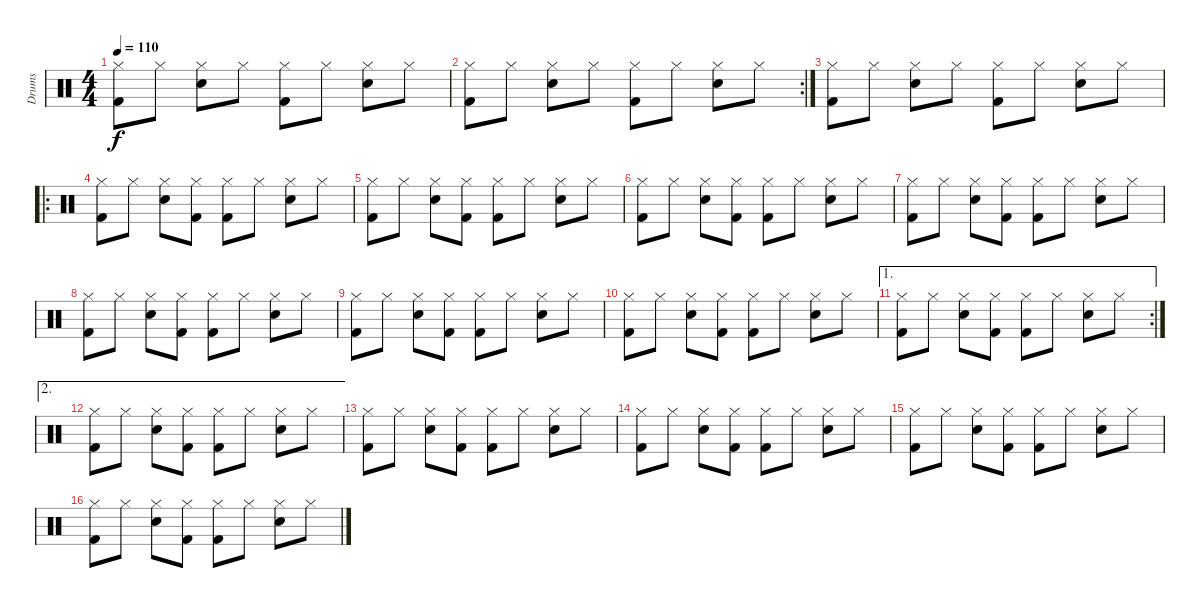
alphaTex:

\track ("Drums" "Drums") {instrument percussion}
\staff {score}
\articulation defaults
\ts (4 4)
\tempo 110
\clef neutral
\ks c
("Hi-Hat (closed)" "Kick (hit) 2").8{dy f} "Hi-Hat (closed)".8 ("Hi-Hat (closed)" "Snare (hit) 2").8 "Hi-Hat (closed)".8 ("Hi-Hat (closed)" "Kick (hit) 2").8 "Hi-Hat (closed)".8 ("Hi-Hat (closed)" "Snare (hit) 2").8 "Hi-Hat (closed)".8 |
\rc 2
("Hi-Hat (closed)" "Kick (hit) 2").8 "Hi-Hat (closed)".8 ("Hi-Hat (closed)" "Snare (hit) 2").8 "Hi-Hat (closed)".8 ("Hi-Hat (closed)" "Kick (hit) 2").8 "Hi-Hat (closed)".8 ("Hi-Hat (closed)" "Snare (hit) 2").8 "Hi-Hat (closed)".8 |
("Hi-Hat (closed)" "Kick (hit) 2").8 "Hi-Hat (closed)".8 ("Hi-Hat (closed)" "Snare (hit) 2").8 "Hi-Hat (closed)".8 ("Hi-Hat (closed)" "Kick (hit) 2").8 "Hi-Hat (closed)".8 ("Hi-Hat (closed)" "Snare (hit) 2").8 "Hi-Hat (closed)".8 |
\ro
("Hi-Hat (closed)" "Kick (hit) 2").8 "Hi-Hat (closed)".8 ("Hi-Hat (closed)" "Snare (hit) 2").8 ("Hi-Hat (closed)" "Kick (hit) 2").8 ("Hi-Hat (closed)" "Kick (hit) 2").8 "Hi-Hat (closed)".8 ("Hi-Hat (closed)" "Snare (hit) 2").8 "Hi-Hat (closed)".8 |
("Hi-Hat (closed)" "Kick (hit) 2").8 "Hi-Hat (closed)".8 ("Hi-Hat (closed)" "Snare (hit) 2").8 ("Hi-Hat (closed)" "Kick (hit) 2").8 ("Hi-Hat (closed)" "Kick (hit) 2").8 "Hi-Hat (closed)".8 ("Hi-Hat (closed)" "Snare (hit) 2").8 "Hi-Hat (closed)".8 |
("Hi-Hat (closed)" "Kick (hit) 2").8 "Hi-Hat (closed)".8 ("Hi-Hat (closed)" "Snare (hit) 2").8 ("Hi-Hat (closed)" "Kick (hit) 2").8 ("Hi-Hat (closed)" "Kick (hit) 2").8 "Hi-Hat (closed)".8 ("Hi-Hat (closed)" "Snare (hit) 2").8 "Hi-Hat (closed)".8 |
("Hi-Hat (closed)" "Kick (hit) 2").8 "Hi-Hat (closed)".8 ("Hi-Hat (closed)" "Snare (hit) 2").8 ("Hi-Hat (closed)" "Kick (hit) 2").8 ("Hi-Hat (closed)" "Kick (hit) 2").8 "Hi-Hat (closed)".8 ("Hi-Hat (closed)" "Snare (hit) 2").8 "Hi-Hat (closed)".8 |
("Hi-Hat (closed)" "Kick (hit) 2").8 "Hi-Hat (closed)".8 ("Hi-Hat (closed)" "Snare (hit) 2").8 ("Hi-Hat (closed)" "Kick (hit) 2").8 ("Hi-Hat (closed)" "Kick (hit) 2").8 "Hi-Hat (closed)".8 ("Hi-Hat (closed)" "Snare (hit) 2").8 "Hi-Hat (closed)".8 |
("Hi-Hat (closed)" "Kick (hit) 2").8 "Hi-Hat (closed)".8 ("Hi-Hat (closed)" "Snare (hit) 2").8 ("Hi-Hat (closed)" "Kick (hit) 2").8 ("Hi-Hat (closed)" "Kick (hit) 2").8 "Hi-Hat (closed)".8 ("Hi-Hat (closed)" "Snare (hit) 2").8 "Hi-Hat (closed)".8 |
("Hi-Hat (closed)" "Kick (hit) 2").8 "Hi-Hat (closed)".8 ("Hi-Hat (closed)" "Snare (hit) 2").8 ("Hi-Hat (closed)" "Kick (hit) 2").8 ("Hi-Hat (closed)" "Kick (hit) 2").8 "Hi-Hat (closed)".8 ("Hi-Hat (closed)" "Snare (hit) 2").8 "Hi-Hat (closed)".8 |
\ae 1
\rc 2
("Hi-Hat (closed)" "Kick (hit) 2").8 "Hi-Hat (closed)".8 ("Hi-Hat (closed)" "Snare (hit) 2").8 ("Hi-Hat (closed)" "Kick (hit) 2").8 ("Hi-Hat (closed)" "Kick (hit) 2").8 "Hi-Hat (closed)".8 ("Hi-Hat (closed)" "Snare (hit) 2").8 "Hi-Hat (closed)".8 |
\ae 2
("Hi-Hat (closed)" "Kick (hit) 2").8 "Hi-Hat (closed)".8 ("Hi-Hat (closed)" "Snare (hit) 2").8 ("Hi-Hat (closed)" "Kick (hit) 2").8 ("Hi-Hat (closed)" "Kick (hit) 2").8 "Hi-Hat (closed)".8 ("Hi-Hat (closed)" "Snare (hit) 2").8 "Hi-Hat (closed)".8 |
("Hi-Hat (closed)" "Kick (hit) 2").8 "Hi-Hat (closed)".8 ("Hi-Hat (closed)" "Snare (hit) 2").8 ("Hi-Hat (closed)" "Kick (hit) 2").8 ("Hi-Hat (closed)" "Kick (hit) 2").8 "Hi-Hat (closed)".8 ("Hi-Hat (closed)" "Snare (hit) 2").8 "Hi-Hat (closed)".8 |
("Hi-Hat (closed)" "Kick (hit) 2").8 "Hi-Hat (closed)".8 ("Hi-Hat (closed)" "Snare (hit) 2").8 ("Hi-Hat (closed)" "Kick (hit) 2").8 ("Hi-Hat (closed)" "Kick (hit) 2").8 "Hi-Hat (closed)".8 ("Hi-Hat (closed)" "Snare (hit) 2").8 "Hi-Hat (closed)".8 |
("Hi-Hat (closed)" "Kick (hit) 2").8 "Hi-Hat (closed)".8 ("Hi-Hat (closed)" "Snare (hit) 2").8 ("Hi-Hat (closed)" "Kick (hit) 2").8 ("Hi-Hat (closed)" "Kick (hit) 2").8 "Hi-Hat (closed)".8 ("Hi-Hat (closed)" "Snare (hit) 2").8 "Hi-Hat (closed)".8 |
("Hi-Hat (closed)" "Kick (hit) 2").8 "Hi-Hat (closed)".8 ("Hi-Hat (closed)" "Snare (hit) 2").8 ("Hi-Hat (closed)" "Kick (hit) 2").8 ("Hi-Hat (closed)" "Kick (hit) 2").8 "Hi-Hat (closed)".8 ("Hi-Hat (closed)" "Snare (hit) 2").8 "Hi-Hat (closed)".8
